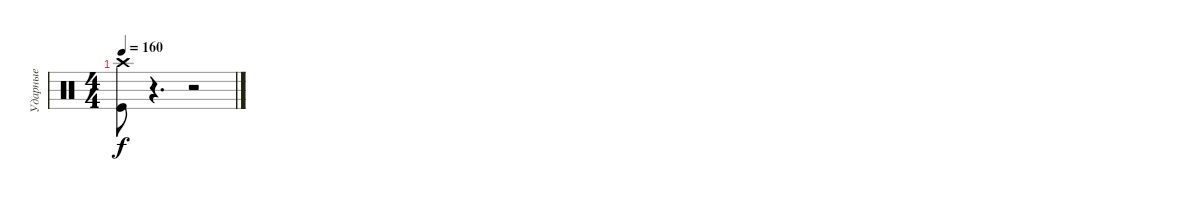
\track ("Ударные" "Ударные") {instrument percussion}
\staff {score}
\articulation defaults
\ts (4 4)
\tempo 160
\clef neutral
\ks c
("Crash high (hit)" "Kick (hit)").8{dy f} r.4{d} r.2
